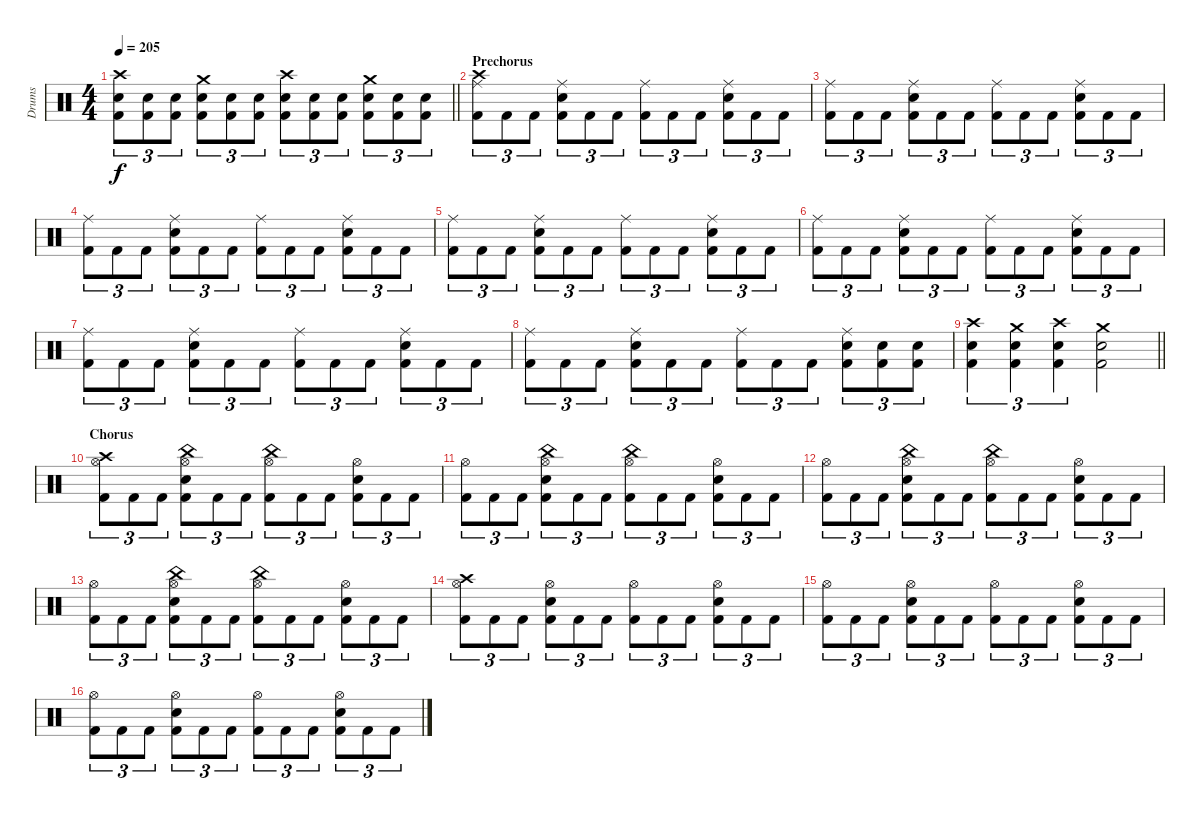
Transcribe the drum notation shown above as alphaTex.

\track ("Drums" "Drums") {instrument percussion}
\staff {score}
\articulation defaults
\ts (4 4)
\tempo 205
\clef neutral
\barLineRight lightlight
\ks c
("Crash high (hit)" "Snare (hit) 2" "Kick (hit) 2").8{tu (3 2) dy f} ("Snare (hit) 2" "Kick (hit) 2").8{tu (3 2)} ("Snare (hit) 2" "Kick (hit) 2").8{tu (3 2)} ("Crash medium (hit)" "Snare (hit) 2" "Kick (hit) 2").8{tu (3 2)} ("Snare (hit) 2" "Kick (hit) 2").8{tu (3 2)} ("Snare (hit) 2" "Kick (hit) 2").8{tu (3 2)} ("Crash high (hit)" "Snare (hit) 2" "Kick (hit) 2").8{tu (3 2)} ("Snare (hit) 2" "Kick (hit) 2").8{tu (3 2)} ("Snare (hit) 2" "Kick (hit) 2").8{tu (3 2)} ("Crash medium (hit)" "Snare (hit) 2" "Kick (hit) 2").8{tu (3 2)} ("Snare (hit) 2" "Kick (hit) 2").8{tu (3 2)} ("Snare (hit) 2" "Kick (hit) 2").8{tu (3 2)} |
\section ("" "Prechorus")
("Crash high (hit)" "Ride (middle)" "Kick (hit) 2").8{tu (3 2)} "Kick (hit) 2".8{tu (3 2)} "Kick (hit) 2".8{tu (3 2)} ("Ride (middle)" "Snare (hit) 2" "Kick (hit) 2").8{tu (3 2)} "Kick (hit) 2".8{tu (3 2)} "Kick (hit) 2".8{tu (3 2)} ("Ride (middle)" "Kick (hit) 2").8{tu (3 2)} "Kick (hit) 2".8{tu (3 2)} "Kick (hit) 2".8{tu (3 2)} ("Ride (middle)" "Snare (hit) 2" "Kick (hit) 2").8{tu (3 2)} "Kick (hit) 2".8{tu (3 2)} "Kick (hit) 2".8{tu (3 2)} |
("Ride (middle)" "Kick (hit) 2").8{tu (3 2)} "Kick (hit) 2".8{tu (3 2)} "Kick (hit) 2".8{tu (3 2)} ("Ride (middle)" "Snare (hit) 2" "Kick (hit) 2").8{tu (3 2)} "Kick (hit) 2".8{tu (3 2)} "Kick (hit) 2".8{tu (3 2)} ("Ride (middle)" "Kick (hit) 2").8{tu (3 2)} "Kick (hit) 2".8{tu (3 2)} "Kick (hit) 2".8{tu (3 2)} ("Ride (middle)" "Snare (hit) 2" "Kick (hit) 2").8{tu (3 2)} "Kick (hit) 2".8{tu (3 2)} "Kick (hit) 2".8{tu (3 2)} |
("Ride (middle)" "Kick (hit) 2").8{tu (3 2)} "Kick (hit) 2".8{tu (3 2)} "Kick (hit) 2".8{tu (3 2)} ("Ride (middle)" "Snare (hit) 2" "Kick (hit) 2").8{tu (3 2)} "Kick (hit) 2".8{tu (3 2)} "Kick (hit) 2".8{tu (3 2)} ("Ride (middle)" "Kick (hit) 2").8{tu (3 2)} "Kick (hit) 2".8{tu (3 2)} "Kick (hit) 2".8{tu (3 2)} ("Ride (middle)" "Snare (hit) 2" "Kick (hit) 2").8{tu (3 2)} "Kick (hit) 2".8{tu (3 2)} "Kick (hit) 2".8{tu (3 2)} |
("Ride (middle)" "Kick (hit) 2").8{tu (3 2)} "Kick (hit) 2".8{tu (3 2)} "Kick (hit) 2".8{tu (3 2)} ("Ride (middle)" "Snare (hit) 2" "Kick (hit) 2").8{tu (3 2)} "Kick (hit) 2".8{tu (3 2)} "Kick (hit) 2".8{tu (3 2)} ("Ride (middle)" "Kick (hit) 2").8{tu (3 2)} "Kick (hit) 2".8{tu (3 2)} "Kick (hit) 2".8{tu (3 2)} ("Ride (middle)" "Snare (hit) 2" "Kick (hit) 2").8{tu (3 2)} "Kick (hit) 2".8{tu (3 2)} "Kick (hit) 2".8{tu (3 2)} |
("Ride (middle)" "Kick (hit) 2").8{tu (3 2)} "Kick (hit) 2".8{tu (3 2)} "Kick (hit) 2".8{tu (3 2)} ("Ride (middle)" "Snare (hit) 2" "Kick (hit) 2").8{tu (3 2)} "Kick (hit) 2".8{tu (3 2)} "Kick (hit) 2".8{tu (3 2)} ("Ride (middle)" "Kick (hit) 2").8{tu (3 2)} "Kick (hit) 2".8{tu (3 2)} "Kick (hit) 2".8{tu (3 2)} ("Ride (middle)" "Snare (hit) 2" "Kick (hit) 2").8{tu (3 2)} "Kick (hit) 2".8{tu (3 2)} "Kick (hit) 2".8{tu (3 2)} |
("Ride (middle)" "Kick (hit) 2").8{tu (3 2)} "Kick (hit) 2".8{tu (3 2)} "Kick (hit) 2".8{tu (3 2)} ("Ride (middle)" "Snare (hit) 2" "Kick (hit) 2").8{tu (3 2)} "Kick (hit) 2".8{tu (3 2)} "Kick (hit) 2".8{tu (3 2)} ("Ride (middle)" "Kick (hit) 2").8{tu (3 2)} "Kick (hit) 2".8{tu (3 2)} "Kick (hit) 2".8{tu (3 2)} ("Ride (middle)" "Snare (hit) 2" "Kick (hit) 2").8{tu (3 2)} "Kick (hit) 2".8{tu (3 2)} "Kick (hit) 2".8{tu (3 2)} |
("Ride (middle)" "Kick (hit) 2").8{tu (3 2)} "Kick (hit) 2".8{tu (3 2)} "Kick (hit) 2".8{tu (3 2)} ("Ride (middle)" "Snare (hit) 2" "Kick (hit) 2").8{tu (3 2)} "Kick (hit) 2".8{tu (3 2)} "Kick (hit) 2".8{tu (3 2)} ("Ride (middle)" "Kick (hit) 2").8{tu (3 2)} "Kick (hit) 2".8{tu (3 2)} "Kick (hit) 2".8{tu (3 2)} ("Ride (middle)" "Snare (hit) 2" "Kick (hit) 2").8{tu (3 2)} ("Snare (hit) 2" "Kick (hit) 2").8{tu (3 2)} ("Snare (hit) 2" "Kick (hit) 2").8{tu (3 2)} |
\barLineRight lightlight
("Crash high (hit)" "Snare (hit) 2" "Kick (hit) 2").4{tu (3 2)} ("Crash medium (hit)" "Snare (hit) 2" "Kick (hit) 2").4{tu (3 2)} ("Crash high (hit)" "Snare (hit) 2" "Kick (hit) 2").4{tu (3 2)} ("Crash medium (hit)" "Snare (hit) 2" "Kick (hit) 2").2 |
\section ("" "Chorus")
("Crash high (hit)" "Hi-Hat (open)" "Kick (hit) 2").8{tu (3 2)} "Kick (hit) 2".8{tu (3 2)} "Kick (hit) 2".8{tu (3 2)} ("China (hit)" "Hi-Hat (open)" "Snare (hit) 2" "Kick (hit) 2").8{tu (3 2)} "Kick (hit) 2".8{tu (3 2)} "Kick (hit) 2".8{tu (3 2)} ("China (hit)" "Hi-Hat (open)" "Kick (hit) 2").8{tu (3 2)} "Kick (hit) 2".8{tu (3 2)} "Kick (hit) 2".8{tu (3 2)} ("Hi-Hat (open)" "Snare (hit) 2" "Kick (hit) 2").8{tu (3 2)} "Kick (hit) 2".8{tu (3 2)} "Kick (hit) 2".8{tu (3 2)} |
("Hi-Hat (open)" "Kick (hit) 2").8{tu (3 2)} "Kick (hit) 2".8{tu (3 2)} "Kick (hit) 2".8{tu (3 2)} ("China (hit)" "Hi-Hat (open)" "Snare (hit) 2" "Kick (hit) 2").8{tu (3 2)} "Kick (hit) 2".8{tu (3 2)} "Kick (hit) 2".8{tu (3 2)} ("China (hit)" "Hi-Hat (open)" "Kick (hit) 2").8{tu (3 2)} "Kick (hit) 2".8{tu (3 2)} "Kick (hit) 2".8{tu (3 2)} ("Hi-Hat (open)" "Snare (hit) 2" "Kick (hit) 2").8{tu (3 2)} "Kick (hit) 2".8{tu (3 2)} "Kick (hit) 2".8{tu (3 2)} |
("Hi-Hat (open)" "Kick (hit) 2").8{tu (3 2)} "Kick (hit) 2".8{tu (3 2)} "Kick (hit) 2".8{tu (3 2)} ("China (hit)" "Hi-Hat (open)" "Snare (hit) 2" "Kick (hit) 2").8{tu (3 2)} "Kick (hit) 2".8{tu (3 2)} "Kick (hit) 2".8{tu (3 2)} ("China (hit)" "Hi-Hat (open)" "Kick (hit) 2").8{tu (3 2)} "Kick (hit) 2".8{tu (3 2)} "Kick (hit) 2".8{tu (3 2)} ("Hi-Hat (open)" "Snare (hit) 2" "Kick (hit) 2").8{tu (3 2)} "Kick (hit) 2".8{tu (3 2)} "Kick (hit) 2".8{tu (3 2)} |
("Hi-Hat (open)" "Kick (hit) 2").8{tu (3 2)} "Kick (hit) 2".8{tu (3 2)} "Kick (hit) 2".8{tu (3 2)} ("China (hit)" "Hi-Hat (open)" "Snare (hit) 2" "Kick (hit) 2").8{tu (3 2)} "Kick (hit) 2".8{tu (3 2)} "Kick (hit) 2".8{tu (3 2)} ("China (hit)" "Hi-Hat (open)" "Kick (hit) 2").8{tu (3 2)} "Kick (hit) 2".8{tu (3 2)} "Kick (hit) 2".8{tu (3 2)} ("Hi-Hat (open)" "Snare (hit) 2" "Kick (hit) 2").8{tu (3 2)} "Kick (hit) 2".8{tu (3 2)} "Kick (hit) 2".8{tu (3 2)} |
("Crash high (hit)" "Hi-Hat (open)" "Kick (hit) 2").8{tu (3 2)} "Kick (hit) 2".8{tu (3 2)} "Kick (hit) 2".8{tu (3 2)} ("Hi-Hat (open)" "Snare (hit) 2" "Kick (hit) 2").8{tu (3 2)} "Kick (hit) 2".8{tu (3 2)} "Kick (hit) 2".8{tu (3 2)} ("Hi-Hat (open)" "Kick (hit) 2").8{tu (3 2)} "Kick (hit) 2".8{tu (3 2)} "Kick (hit) 2".8{tu (3 2)} ("Hi-Hat (open)" "Snare (hit) 2" "Kick (hit) 2").8{tu (3 2)} "Kick (hit) 2".8{tu (3 2)} "Kick (hit) 2".8{tu (3 2)} |
("Hi-Hat (open)" "Kick (hit) 2").8{tu (3 2)} "Kick (hit) 2".8{tu (3 2)} "Kick (hit) 2".8{tu (3 2)} ("Hi-Hat (open)" "Snare (hit) 2" "Kick (hit) 2").8{tu (3 2)} "Kick (hit) 2".8{tu (3 2)} "Kick (hit) 2".8{tu (3 2)} ("Hi-Hat (open)" "Kick (hit) 2").8{tu (3 2)} "Kick (hit) 2".8{tu (3 2)} "Kick (hit) 2".8{tu (3 2)} ("Hi-Hat (open)" "Snare (hit) 2" "Kick (hit) 2").8{tu (3 2)} "Kick (hit) 2".8{tu (3 2)} "Kick (hit) 2".8{tu (3 2)} |
("Hi-Hat (open)" "Kick (hit) 2").8{tu (3 2)} "Kick (hit) 2".8{tu (3 2)} "Kick (hit) 2".8{tu (3 2)} ("Hi-Hat (open)" "Snare (hit) 2" "Kick (hit) 2").8{tu (3 2)} "Kick (hit) 2".8{tu (3 2)} "Kick (hit) 2".8{tu (3 2)} ("Hi-Hat (open)" "Kick (hit) 2").8{tu (3 2)} "Kick (hit) 2".8{tu (3 2)} "Kick (hit) 2".8{tu (3 2)} ("Hi-Hat (open)" "Snare (hit) 2" "Kick (hit) 2").8{tu (3 2)} "Kick (hit) 2".8{tu (3 2)} "Kick (hit) 2".8{tu (3 2)}
